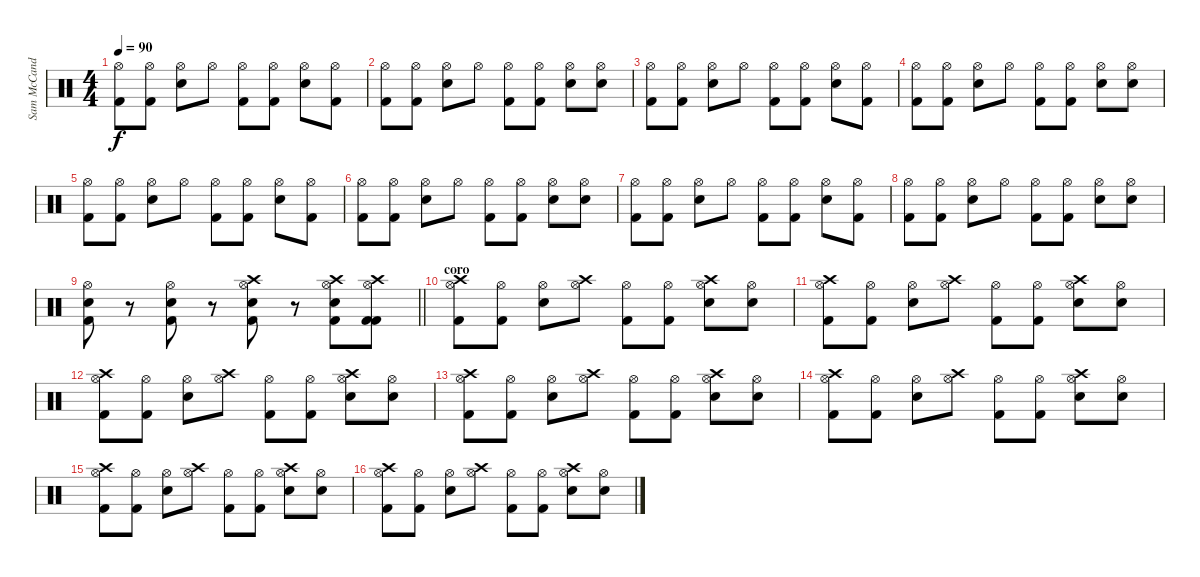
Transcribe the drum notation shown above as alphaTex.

\track ("Sam McCandless" "Sam McCand") {instrument percussion}
\staff {score}
\articulation defaults
\ts (4 4)
\tempo 90
\clef neutral
\ks c
("Hi-Hat (open)" "Kick (hit) 2").8{dy f} ("Hi-Hat (open)" "Kick (hit) 2").8 ("Hi-Hat (open)" "Electric Snare (hit)").8 "Hi-Hat (open)".8 ("Hi-Hat (open)" "Kick (hit) 2").8 ("Hi-Hat (open)" "Kick (hit) 2").8 ("Hi-Hat (open)" "Electric Snare (hit)").8 ("Hi-Hat (open)" "Kick (hit) 2").8 |
("Hi-Hat (open)" "Kick (hit) 2").8 ("Hi-Hat (open)" "Kick (hit) 2").8 ("Hi-Hat (open)" "Electric Snare (hit)").8 "Hi-Hat (open)".8 ("Hi-Hat (open)" "Kick (hit) 2").8 ("Hi-Hat (open)" "Kick (hit) 2").8 ("Hi-Hat (open)" "Electric Snare (hit)").8 ("Hi-Hat (open)" "Electric Snare (hit)").8 |
("Hi-Hat (open)" "Kick (hit) 2").8 ("Hi-Hat (open)" "Kick (hit) 2").8 ("Hi-Hat (open)" "Electric Snare (hit)").8 "Hi-Hat (open)".8 ("Hi-Hat (open)" "Kick (hit) 2").8 ("Hi-Hat (open)" "Kick (hit) 2").8 ("Hi-Hat (open)" "Electric Snare (hit)").8 ("Hi-Hat (open)" "Kick (hit) 2").8 |
("Hi-Hat (open)" "Kick (hit) 2").8 ("Hi-Hat (open)" "Kick (hit) 2").8 ("Hi-Hat (open)" "Electric Snare (hit)").8 "Hi-Hat (open)".8 ("Hi-Hat (open)" "Kick (hit) 2").8 ("Hi-Hat (open)" "Kick (hit) 2").8 ("Hi-Hat (open)" "Electric Snare (hit)").8 ("Hi-Hat (open)" "Electric Snare (hit)").8 |
("Hi-Hat (open)" "Kick (hit) 2").8 ("Hi-Hat (open)" "Kick (hit) 2").8 ("Hi-Hat (open)" "Electric Snare (hit)").8 "Hi-Hat (open)".8 ("Hi-Hat (open)" "Kick (hit) 2").8 ("Hi-Hat (open)" "Kick (hit) 2").8 ("Hi-Hat (open)" "Electric Snare (hit)").8 ("Hi-Hat (open)" "Kick (hit) 2").8 |
("Hi-Hat (open)" "Kick (hit) 2").8 ("Hi-Hat (open)" "Kick (hit) 2").8 ("Hi-Hat (open)" "Electric Snare (hit)").8 "Hi-Hat (open)".8 ("Hi-Hat (open)" "Kick (hit) 2").8 ("Hi-Hat (open)" "Kick (hit) 2").8 ("Hi-Hat (open)" "Electric Snare (hit)").8 ("Hi-Hat (open)" "Electric Snare (hit)").8 |
("Hi-Hat (open)" "Kick (hit) 2").8 ("Hi-Hat (open)" "Kick (hit) 2").8 ("Hi-Hat (open)" "Electric Snare (hit)").8 "Hi-Hat (open)".8 ("Hi-Hat (open)" "Kick (hit) 2").8 ("Hi-Hat (open)" "Kick (hit) 2").8 ("Hi-Hat (open)" "Electric Snare (hit)").8 ("Hi-Hat (open)" "Kick (hit) 2").8 |
("Hi-Hat (open)" "Kick (hit) 2").8 ("Hi-Hat (open)" "Kick (hit) 2").8 ("Hi-Hat (open)" "Electric Snare (hit)").8 "Hi-Hat (open)".8 ("Hi-Hat (open)" "Kick (hit) 2").8 ("Hi-Hat (open)" "Kick (hit) 2").8 ("Hi-Hat (open)" "Electric Snare (hit)").8 ("Hi-Hat (open)" "Electric Snare (hit)").8 |
\barLineRight lightlight
("Hi-Hat (open)" "Kick (hit) 2" "Snare (hit) 2").8 r.8 ("Hi-Hat (open)" "Kick (hit) 2" "Snare (hit) 2").8 r.8 ("Crash high (hit)" "Hi-Hat (open)" "Kick (hit) 2" "Snare (hit) 2").8 r.8 ("Crash high (hit)" "Hi-Hat (open)" "Kick (hit) 2" "Snare (hit) 2").8 ("Crash high (hit)" "Hi-Hat (open)" "Kick (hit) 2" "Kick (hit) 2").8 |
\section ("" "coro")
("Crash high (hit)" "Hi-Hat (open)" "Kick (hit) 2").8 ("Hi-Hat (open)" "Kick (hit) 2").8 ("Hi-Hat (open)" "Electric Snare (hit)").8 ("Crash high (hit)" "Hi-Hat (open)").8 ("Hi-Hat (open)" "Kick (hit) 2").8 ("Hi-Hat (open)" "Kick (hit) 2").8 ("Crash high (hit)" "Hi-Hat (open)" "Electric Snare (hit)").8 ("Hi-Hat (open)" "Electric Snare (hit)").8 |
("Crash high (hit)" "Hi-Hat (open)" "Kick (hit) 2").8 ("Hi-Hat (open)" "Kick (hit) 2").8 ("Hi-Hat (open)" "Electric Snare (hit)").8 ("Crash high (hit)" "Hi-Hat (open)").8 ("Hi-Hat (open)" "Kick (hit) 2").8 ("Hi-Hat (open)" "Kick (hit) 2").8 ("Crash high (hit)" "Hi-Hat (open)" "Electric Snare (hit)").8 ("Hi-Hat (open)" "Electric Snare (hit)").8 |
("Crash high (hit)" "Hi-Hat (open)" "Kick (hit) 2").8 ("Hi-Hat (open)" "Kick (hit) 2").8 ("Hi-Hat (open)" "Electric Snare (hit)").8 ("Crash high (hit)" "Hi-Hat (open)").8 ("Hi-Hat (open)" "Kick (hit) 2").8 ("Hi-Hat (open)" "Kick (hit) 2").8 ("Crash high (hit)" "Hi-Hat (open)" "Electric Snare (hit)").8 ("Hi-Hat (open)" "Electric Snare (hit)").8 |
("Crash high (hit)" "Hi-Hat (open)" "Kick (hit) 2").8 ("Hi-Hat (open)" "Kick (hit) 2").8 ("Hi-Hat (open)" "Electric Snare (hit)").8 ("Crash high (hit)" "Hi-Hat (open)").8 ("Hi-Hat (open)" "Kick (hit) 2").8 ("Hi-Hat (open)" "Kick (hit) 2").8 ("Crash high (hit)" "Hi-Hat (open)" "Electric Snare (hit)").8 ("Hi-Hat (open)" "Electric Snare (hit)").8 |
("Crash high (hit)" "Hi-Hat (open)" "Kick (hit) 2").8 ("Hi-Hat (open)" "Kick (hit) 2").8 ("Hi-Hat (open)" "Electric Snare (hit)").8 ("Crash high (hit)" "Hi-Hat (open)").8 ("Hi-Hat (open)" "Kick (hit) 2").8 ("Hi-Hat (open)" "Kick (hit) 2").8 ("Crash high (hit)" "Hi-Hat (open)" "Electric Snare (hit)").8 ("Hi-Hat (open)" "Electric Snare (hit)").8 |
("Crash high (hit)" "Hi-Hat (open)" "Kick (hit) 2").8 ("Hi-Hat (open)" "Kick (hit) 2").8 ("Hi-Hat (open)" "Electric Snare (hit)").8 ("Crash high (hit)" "Hi-Hat (open)").8 ("Hi-Hat (open)" "Kick (hit) 2").8 ("Hi-Hat (open)" "Kick (hit) 2").8 ("Crash high (hit)" "Hi-Hat (open)" "Electric Snare (hit)").8 ("Hi-Hat (open)" "Electric Snare (hit)").8 |
("Crash high (hit)" "Hi-Hat (open)" "Kick (hit) 2").8 ("Hi-Hat (open)" "Kick (hit) 2").8 ("Hi-Hat (open)" "Electric Snare (hit)").8 ("Crash high (hit)" "Hi-Hat (open)").8 ("Hi-Hat (open)" "Kick (hit) 2").8 ("Hi-Hat (open)" "Kick (hit) 2").8 ("Crash high (hit)" "Hi-Hat (open)" "Electric Snare (hit)").8 ("Hi-Hat (open)" "Electric Snare (hit)").8
